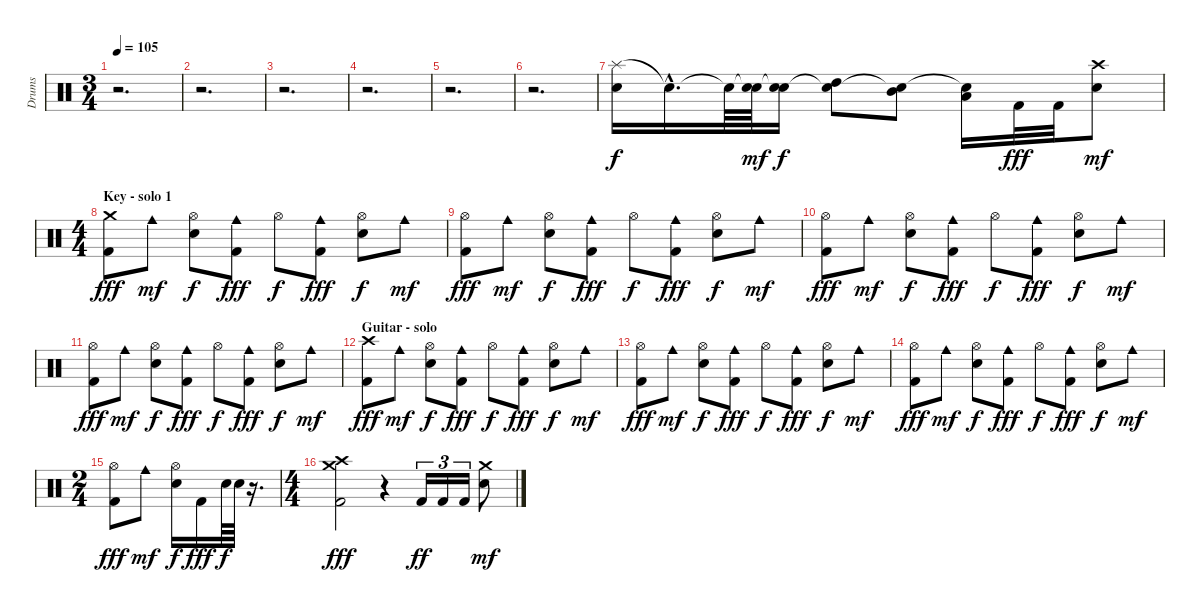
\track ("Drums" "Drums") {instrument percussion}
\staff {score}
\articulation defaults
\ts (3 4)
\tempo 105
\clef neutral
\ks c
r.2{d dy fff} |
r.2{d} |
r.2{d} |
r.2{d} |
r.2{d} |
r.2{d} |
("Splash (hit)" "Electric Snare (hit)").16{dy f} "Snare (hit)"{hac t}.16{d} "Snare (hit)"{t}.64 ("Snare (hit)"{t} "Electric Snare (hit)").64{dy mf} ("Snare (hit)"{t} "Electric Snare (hit)").16{dy f} ("Snare (hit)"{t} "High Tom (hit)").8 ("Snare (hit)"{t} "Mid Tom (hit)").8 ("Snare (hit)"{t} "Low Tom (hit)").16 "Kick (hit) 2".32{dy fff} "Kick (hit) 2".32 ("Crash high (hit)" "Electric Snare (hit)").8{dy mf} |
\ts (4 4)
\section ("" "Key - solo 1")
("Crash medium (hit)" "Kick (hit) 2").8{dy fff} "Cowbell medium (hit)".8{dy mf} ("Hi-Hat (open)" "Electric Snare (hit)").8{dy f} ("Cowbell medium (hit)" "Kick (hit) 2").8{dy fff} "Hi-Hat (open)".8{dy f} ("Cowbell medium (hit)" "Kick (hit) 2").8{dy fff} ("Hi-Hat (open)" "Electric Snare (hit)").8{dy f} "Cowbell medium (hit)".8{dy mf} |
("Hi-Hat (open)" "Kick (hit) 2").8{dy fff} "Cowbell medium (hit)".8{dy mf} ("Hi-Hat (open)" "Electric Snare (hit)").8{dy f} ("Cowbell medium (hit)" "Kick (hit) 2").8{dy fff} "Hi-Hat (open)".8{dy f} ("Cowbell medium (hit)" "Kick (hit) 2").8{dy fff} ("Hi-Hat (open)" "Electric Snare (hit)").8{dy f} "Cowbell medium (hit)".8{dy mf} |
("Hi-Hat (open)" "Kick (hit) 2").8{dy fff} "Cowbell medium (hit)".8{dy mf} ("Hi-Hat (open)" "Electric Snare (hit)").8{dy f} ("Cowbell medium (hit)" "Kick (hit) 2").8{dy fff} "Hi-Hat (open)".8{dy f} ("Cowbell medium (hit)" "Kick (hit) 2").8{dy fff} ("Hi-Hat (open)" "Electric Snare (hit)").8{dy f} "Cowbell medium (hit)".8{dy mf} |
("Hi-Hat (open)" "Kick (hit) 2").8{dy fff} "Cowbell medium (hit)".8{dy mf} ("Hi-Hat (open)" "Electric Snare (hit)").8{dy f} ("Cowbell medium (hit)" "Kick (hit) 2").8{dy fff} "Hi-Hat (open)".8{dy f} ("Cowbell medium (hit)" "Kick (hit) 2").8{dy fff} ("Hi-Hat (open)" "Electric Snare (hit)").8{dy f} "Cowbell medium (hit)".8{dy mf} |
\section ("" "Guitar - solo")
("Crash high (hit)" "Kick (hit) 2").8{dy fff} "Cowbell medium (hit)".8{dy mf} ("Hi-Hat (open)" "Electric Snare (hit)").8{dy f} ("Cowbell medium (hit)" "Kick (hit) 2").8{dy fff} "Hi-Hat (open)".8{dy f} ("Cowbell medium (hit)" "Kick (hit) 2").8{dy fff} ("Hi-Hat (open)" "Electric Snare (hit)").8{dy f} "Cowbell medium (hit)".8{dy mf} |
("Hi-Hat (open)" "Kick (hit) 2").8{dy fff} "Cowbell medium (hit)".8{dy mf} ("Hi-Hat (open)" "Electric Snare (hit)").8{dy f} ("Cowbell medium (hit)" "Kick (hit) 2").8{dy fff} "Hi-Hat (open)".8{dy f} ("Cowbell medium (hit)" "Kick (hit) 2").8{dy fff} ("Hi-Hat (open)" "Electric Snare (hit)").8{dy f} "Cowbell medium (hit)".8{dy mf} |
("Hi-Hat (open)" "Kick (hit) 2").8{dy fff} "Cowbell medium (hit)".8{dy mf} ("Hi-Hat (open)" "Electric Snare (hit)").8{dy f} ("Cowbell medium (hit)" "Kick (hit) 2").8{dy fff} "Hi-Hat (open)".8{dy f} ("Cowbell medium (hit)" "Kick (hit) 2").8{dy fff} ("Hi-Hat (open)" "Electric Snare (hit)").8{dy f} "Cowbell medium (hit)".8{dy mf} |
\ts (2 4)
("Hi-Hat (open)" "Kick (hit) 2").8{dy fff} "Cowbell medium (hit)".8{dy mf} ("Hi-Hat (open)" "Electric Snare (hit)").16{dy f} "Kick (hit) 2".16{dy fff} "Electric Snare (hit)".64{dy f} "Electric Snare (hit)".64 r.16{d} |
\ts (4 4)
("Crash medium (hit)" "Crash high (hit)" "Kick (hit) 2").2{dy fff} r.4 "Kick (hit) 2".16{tu (3 2) dy ff} "Kick (hit) 2".16{tu (3 2)} "Kick (hit) 2".16{tu (3 2)} ("Crash medium (hit)" "Electric Snare (hit)").8{dy mf}
